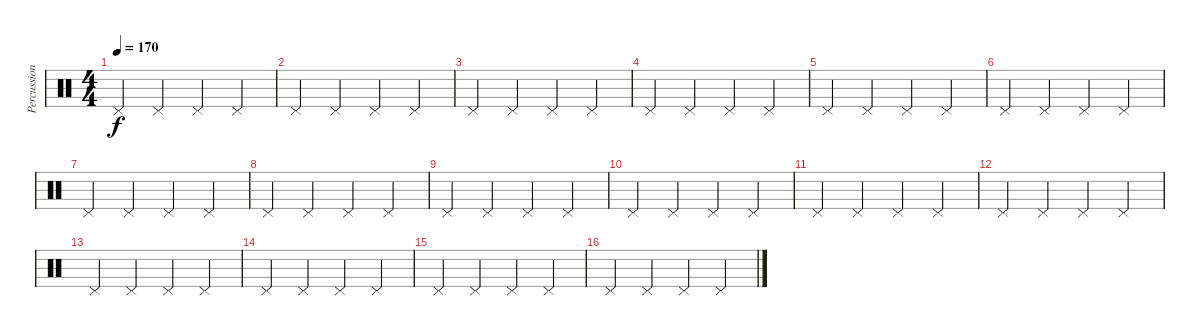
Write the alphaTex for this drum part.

\track ("Percussion" "Percussion") {instrument percussion}
\staff {score}
\articulation defaults
\ts (4 4)
\tempo 170
\clef neutral
\ks c "Pedal Hi-Hat (hit)".4{dy f} "Pedal Hi-Hat (hit)".4 "Pedal Hi-Hat (hit)".4 "Pedal Hi-Hat (hit)".4
|
"Pedal Hi-Hat (hit)".4 "Pedal Hi-Hat (hit)".4 "Pedal Hi-Hat (hit)".4 "Pedal Hi-Hat (hit)".4 |
"Pedal Hi-Hat (hit)".4 "Pedal Hi-Hat (hit)".4 "Pedal Hi-Hat (hit)".4 "Pedal Hi-Hat (hit)".4 |
"Pedal Hi-Hat (hit)".4 "Pedal Hi-Hat (hit)".4 "Pedal Hi-Hat (hit)".4 "Pedal Hi-Hat (hit)".4 |
"Pedal Hi-Hat (hit)".4 "Pedal Hi-Hat (hit)".4 "Pedal Hi-Hat (hit)".4 "Pedal Hi-Hat (hit)".4 |
"Pedal Hi-Hat (hit)".4 "Pedal Hi-Hat (hit)".4 "Pedal Hi-Hat (hit)".4 "Pedal Hi-Hat (hit)".4 |
"Pedal Hi-Hat (hit)".4 "Pedal Hi-Hat (hit)".4 "Pedal Hi-Hat (hit)".4 "Pedal Hi-Hat (hit)".4 |
"Pedal Hi-Hat (hit)".4 "Pedal Hi-Hat (hit)".4 "Pedal Hi-Hat (hit)".4 "Pedal Hi-Hat (hit)".4 |
"Pedal Hi-Hat (hit)".4 "Pedal Hi-Hat (hit)".4 "Pedal Hi-Hat (hit)".4 "Pedal Hi-Hat (hit)".4 |
"Pedal Hi-Hat (hit)".4 "Pedal Hi-Hat (hit)".4 "Pedal Hi-Hat (hit)".4 "Pedal Hi-Hat (hit)".4 |
"Pedal Hi-Hat (hit)".4 "Pedal Hi-Hat (hit)".4 "Pedal Hi-Hat (hit)".4 "Pedal Hi-Hat (hit)".4 |
"Pedal Hi-Hat (hit)".4 "Pedal Hi-Hat (hit)".4 "Pedal Hi-Hat (hit)".4 "Pedal Hi-Hat (hit)".4 |
"Pedal Hi-Hat (hit)".4 "Pedal Hi-Hat (hit)".4 "Pedal Hi-Hat (hit)".4 "Pedal Hi-Hat (hit)".4 |
"Pedal Hi-Hat (hit)".4 "Pedal Hi-Hat (hit)".4 "Pedal Hi-Hat (hit)".4 "Pedal Hi-Hat (hit)".4 |
"Pedal Hi-Hat (hit)".4 "Pedal Hi-Hat (hit)".4 "Pedal Hi-Hat (hit)".4 "Pedal Hi-Hat (hit)".4 |
"Pedal Hi-Hat (hit)".4 "Pedal Hi-Hat (hit)".4 "Pedal Hi-Hat (hit)".4 "Pedal Hi-Hat (hit)".4
